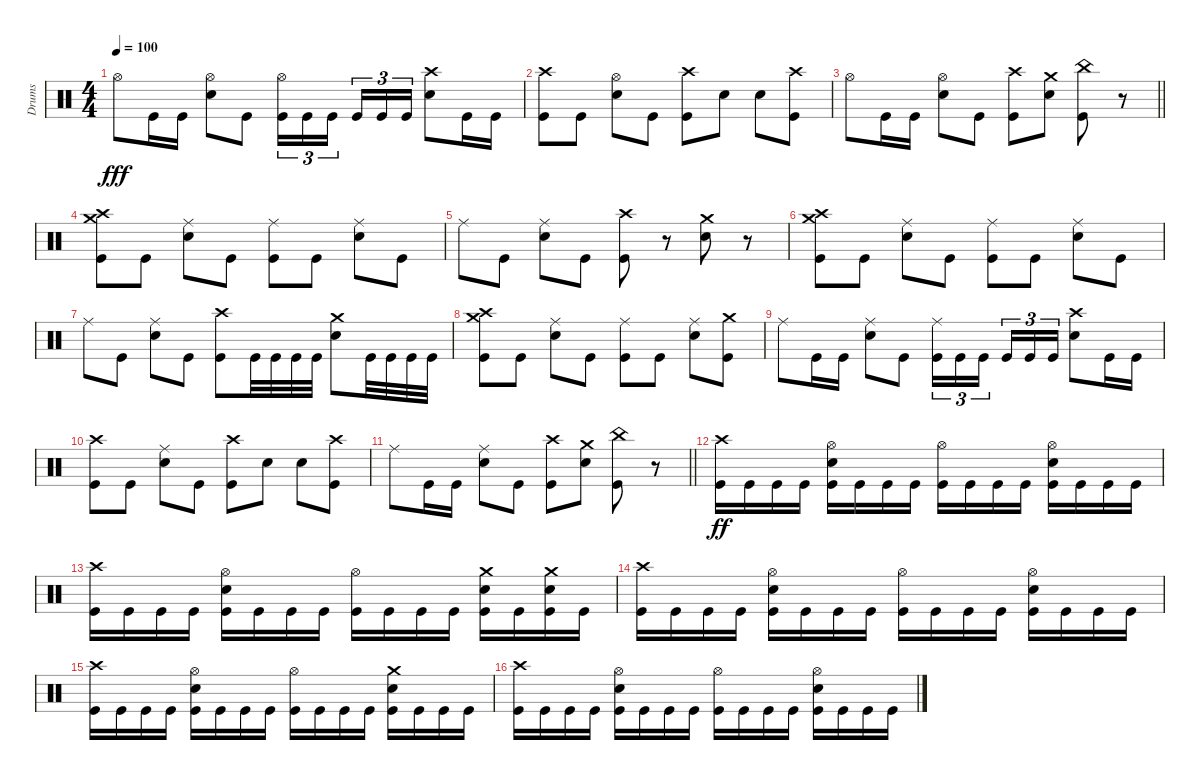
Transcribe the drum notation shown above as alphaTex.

\track ("Drums" "Drums") {instrument percussion}
\staff {score}
\articulation defaults
\ts (4 4)
\tempo 100
\clef neutral
\ks c "Hi-Hat (open)".8{dy fff} "Kick (hit)".16 "Kick (hit)".16
("Hi-Hat (open)" "Snare (hit) 2").8 "Kick (hit)".8 ("Hi-Hat (open)" "Kick (hit)").16{tu (3 2)} "Kick (hit)".16{tu (3 2)} "Kick (hit)".16{tu (3 2) beam splitsecondary} "Kick (hit)".16{tu (3 2)} "Kick (hit)".16{tu (3 2)} "Kick (hit)".16{tu (3 2)} ("Crash high (hit)" "Snare (hit) 2").8 "Kick (hit)".16 "Kick (hit)".16 |
("Crash high (hit)" "Kick (hit)").8 "Kick (hit)".8 ("Hi-Hat (open)" "Snare (hit) 2").8 "Kick (hit)".8 ("Crash high (hit)" "Kick (hit)").8 "Snare (hit) 2".8 "Snare (hit) 2".8 ("Crash high (hit)" "Kick (hit)").8 |
\barLineRight lightlight "Hi-Hat (open)".8 "Kick (hit)".16 "Kick (hit)".16
("Hi-Hat (open)" "Snare (hit) 2").8 "Kick (hit)".8 ("Crash high (hit)" "Kick (hit)").8 ("Crash medium (hit)" "Snare (hit) 2").8 ("China (hit)" "Kick (hit)").8 r.8 |
("Crash high (hit)" "Crash medium (hit)" "Kick (hit)").8 "Kick (hit)".8 ("Ride (middle)" "Snare (hit) 2").8 "Kick (hit)".8 ("Ride (middle)" "Kick (hit)").8 "Kick (hit)".8 ("Ride (middle)" "Snare (hit) 2").8 "Kick (hit)".8 |
"Ride (middle)".8 "Kick (hit)".8 ("Ride (middle)" "Snare (hit) 2").8 "Kick (hit)".8 ("Crash high (hit)" "Kick (hit)").8 r.8 ("Crash medium (hit)" "Snare (hit) 2").8 r.8 |
("Crash high (hit)" "Crash medium (hit)" "Kick (hit)").8 "Kick (hit)".8 ("Ride (middle)" "Snare (hit) 2").8 "Kick (hit)".8 ("Ride (middle)" "Kick (hit)").8 "Kick (hit)".8 ("Ride (middle)" "Snare (hit) 2").8 "Kick (hit)".8 |
"Ride (middle)".8 "Kick (hit)".8 ("Ride (middle)" "Snare (hit) 2").8 "Kick (hit)".8 ("Crash high (hit)" "Kick (hit)").8 "Kick (hit)".32 "Kick (hit)".32 "Kick (hit)".32 "Kick (hit)".32 ("Crash medium (hit)" "Snare (hit) 2").8 "Kick (hit)".32 "Kick (hit)".32 "Kick (hit)".32 "Kick (hit)".32 |
("Crash high (hit)" "Crash medium (hit)" "Kick (hit)").8 "Kick (hit)".8 ("Ride (middle)" "Snare (hit) 2").8 "Kick (hit)".8 ("Ride (middle)" "Kick (hit)").8 "Kick (hit)".8 ("Ride (middle)" "Snare (hit) 2").8 ("Crash medium (hit)" "Kick (hit)").8 |
"Ride (middle)".8 "Kick (hit)".16 "Kick (hit)".16 ("Ride (middle)" "Snare (hit) 2").8 "Kick (hit)".8 ("Ride (middle)" "Kick (hit)").16{tu (3 2)} "Kick (hit)".16{tu (3 2)} "Kick (hit)".16{tu (3 2) beam splitsecondary} "Kick (hit)".16{tu (3 2)} "Kick (hit)".16{tu (3 2)} "Kick (hit)".16{tu (3 2)} ("Crash high (hit)" "Snare (hit) 2").8 "Kick (hit)".16 "Kick (hit)".16 |
("Crash high (hit)" "Kick (hit)").8 "Kick (hit)".8 ("Ride (middle)" "Snare (hit) 2").8 "Kick (hit)".8 ("Crash high (hit)" "Kick (hit)").8 "Snare (hit) 2".8 "Snare (hit) 2".8 ("Crash high (hit)" "Kick (hit)").8 |
\barLineRight lightlight "Ride (middle)".8 "Kick (hit)".16 "Kick (hit)".16
("Ride (middle)" "Snare (hit) 2").8 "Kick (hit)".8 ("Crash high (hit)" "Kick (hit)").8 ("Crash medium (hit)" "Snare (hit) 2").8 ("China (hit)" "Kick (hit)").8 r.8 |
("Crash high (hit)" "Kick (hit)").16{dy ff} "Kick (hit)".16 "Kick (hit)".16 "Kick (hit)".16 ("Hi-Hat (open)" "Kick (hit)" "Snare (hit) 2").16 "Kick (hit)".16 "Kick (hit)".16 "Kick (hit)".16 ("Hi-Hat (open)" "Kick (hit)").16 "Kick (hit)".16 "Kick (hit)".16 "Kick (hit)".16 ("Hi-Hat (open)" "Kick (hit)" "Snare (hit) 2").16 "Kick (hit)".16 "Kick (hit)".16 "Kick (hit)".16 |
("Crash high (hit)" "Kick (hit)").16 "Kick (hit)".16 "Kick (hit)".16 "Kick (hit)".16 ("Hi-Hat (open)" "Kick (hit)" "Snare (hit) 2").16 "Kick (hit)".16 "Kick (hit)".16 "Kick (hit)".16 ("Hi-Hat (open)" "Kick (hit)").16 "Kick (hit)".16 "Kick (hit)".16 "Kick (hit)".16 ("Crash medium (hit)" "Kick (hit)" "Snare (hit) 2").16 "Kick (hit)".16 ("Crash medium (hit)" "Kick (hit)" "Snare (hit) 2").16 "Kick (hit)".16 |
("Crash high (hit)" "Kick (hit)").16 "Kick (hit)".16 "Kick (hit)".16 "Kick (hit)".16 ("Hi-Hat (open)" "Kick (hit)" "Snare (hit) 2").16 "Kick (hit)".16 "Kick (hit)".16 "Kick (hit)".16 ("Hi-Hat (open)" "Kick (hit)").16 "Kick (hit)".16 "Kick (hit)".16 "Kick (hit)".16 ("Hi-Hat (open)" "Kick (hit)" "Snare (hit) 2").16 "Kick (hit)".16 "Kick (hit)".16 "Kick (hit)".16 |
("Crash high (hit)" "Kick (hit)").16 "Kick (hit)".16 "Kick (hit)".16 "Kick (hit)".16 ("Hi-Hat (open)" "Kick (hit)" "Snare (hit) 2").16 "Kick (hit)".16 "Kick (hit)".16 "Kick (hit)".16 ("Hi-Hat (open)" "Kick (hit)").16 "Kick (hit)".16 "Kick (hit)".16 "Kick (hit)".16 ("Crash medium (hit)" "Kick (hit)" "Snare (hit) 2").16 "Kick (hit)".16 "Kick (hit)".16 "Kick (hit)".16 |
("Crash high (hit)" "Kick (hit)").16 "Kick (hit)".16 "Kick (hit)".16 "Kick (hit)".16 ("Hi-Hat (open)" "Kick (hit)" "Snare (hit) 2").16 "Kick (hit)".16 "Kick (hit)".16 "Kick (hit)".16 ("Hi-Hat (open)" "Kick (hit)").16 "Kick (hit)".16 "Kick (hit)".16 "Kick (hit)".16 ("Hi-Hat (open)" "Kick (hit)" "Snare (hit) 2").16 "Kick (hit)".16 "Kick (hit)".16 "Kick (hit)".16
